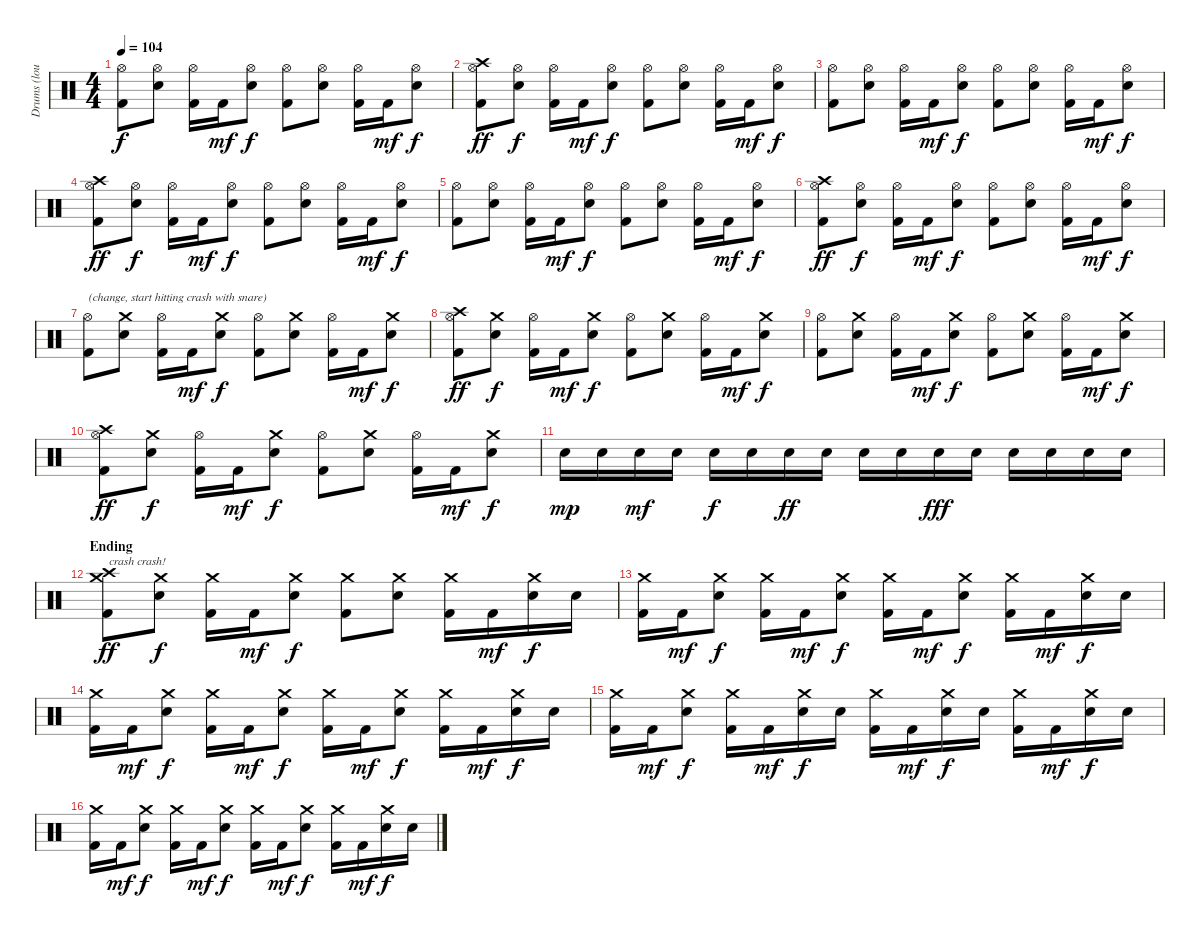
\track ("Drums (loud!)" "Drums (lou") {instrument percussion}
\staff {score}
\articulation defaults
\ts (4 4)
\tempo 104
\clef neutral
\ks c
("Hi-Hat (open)" "Kick (hit) 2").8{dy f} ("Hi-Hat (open)" "Snare (hit) 2").8 ("Hi-Hat (open)" "Kick (hit) 2").16 "Kick (hit) 2".16{dy mf} ("Hi-Hat (open)" "Snare (hit) 2").8{dy f} ("Hi-Hat (open)" "Kick (hit) 2").8 ("Hi-Hat (open)" "Snare (hit) 2").8 ("Hi-Hat (open)" "Kick (hit) 2").16 "Kick (hit) 2".16{dy mf} ("Hi-Hat (open)" "Snare (hit) 2").8{dy f} |
("Hi-Hat (open)" "Crash high (hit)" "Kick (hit) 2").8{dy ff} ("Hi-Hat (open)" "Snare (hit) 2").8{dy f} ("Hi-Hat (open)" "Kick (hit) 2").16 "Kick (hit) 2".16{dy mf} ("Hi-Hat (open)" "Snare (hit) 2").8{dy f} ("Hi-Hat (open)" "Kick (hit) 2").8 ("Hi-Hat (open)" "Snare (hit) 2").8 ("Hi-Hat (open)" "Kick (hit) 2").16 "Kick (hit) 2".16{dy mf} ("Hi-Hat (open)" "Snare (hit) 2").8{dy f} |
("Hi-Hat (open)" "Kick (hit) 2").8 ("Hi-Hat (open)" "Snare (hit) 2").8 ("Hi-Hat (open)" "Kick (hit) 2").16 "Kick (hit) 2".16{dy mf} ("Hi-Hat (open)" "Snare (hit) 2").8{dy f} ("Hi-Hat (open)" "Kick (hit) 2").8 ("Hi-Hat (open)" "Snare (hit) 2").8 ("Hi-Hat (open)" "Kick (hit) 2").16 "Kick (hit) 2".16{dy mf} ("Hi-Hat (open)" "Snare (hit) 2").8{dy f} |
("Hi-Hat (open)" "Crash high (hit)" "Kick (hit) 2").8{dy ff} ("Hi-Hat (open)" "Snare (hit) 2").8{dy f} ("Hi-Hat (open)" "Kick (hit) 2").16 "Kick (hit) 2".16{dy mf} ("Hi-Hat (open)" "Snare (hit) 2").8{dy f} ("Hi-Hat (open)" "Kick (hit) 2").8 ("Hi-Hat (open)" "Snare (hit) 2").8 ("Hi-Hat (open)" "Kick (hit) 2").16 "Kick (hit) 2".16{dy mf} ("Hi-Hat (open)" "Snare (hit) 2").8{dy f} |
("Hi-Hat (open)" "Kick (hit) 2").8 ("Hi-Hat (open)" "Snare (hit) 2").8 ("Hi-Hat (open)" "Kick (hit) 2").16 "Kick (hit) 2".16{dy mf} ("Hi-Hat (open)" "Snare (hit) 2").8{dy f} ("Hi-Hat (open)" "Kick (hit) 2").8 ("Hi-Hat (open)" "Snare (hit) 2").8 ("Hi-Hat (open)" "Kick (hit) 2").16 "Kick (hit) 2".16{dy mf} ("Hi-Hat (open)" "Snare (hit) 2").8{dy f} |
("Hi-Hat (open)" "Crash high (hit)" "Kick (hit) 2").8{dy ff} ("Hi-Hat (open)" "Snare (hit) 2").8{dy f} ("Hi-Hat (open)" "Kick (hit) 2").16 "Kick (hit) 2".16{dy mf} ("Hi-Hat (open)" "Snare (hit) 2").8{dy f} ("Hi-Hat (open)" "Kick (hit) 2").8 ("Hi-Hat (open)" "Snare (hit) 2").8 ("Hi-Hat (open)" "Kick (hit) 2").16 "Kick (hit) 2".16{dy mf} ("Hi-Hat (open)" "Snare (hit) 2").8{dy f} |
("Hi-Hat (open)" "Kick (hit) 2").8{txt "(change, start hitting crash with snare)"} ("Crash medium (hit)" "Snare (hit) 2").8 ("Hi-Hat (open)" "Kick (hit) 2").16 "Kick (hit) 2".16{dy mf} ("Crash medium (hit)" "Snare (hit) 2").8{dy f} ("Hi-Hat (open)" "Kick (hit) 2").8 ("Crash medium (hit)" "Snare (hit) 2").8 ("Hi-Hat (open)" "Kick (hit) 2").16 "Kick (hit) 2".16{dy mf} ("Crash medium (hit)" "Snare (hit) 2").8{dy f} |
("Hi-Hat (open)" "Crash high (hit)" "Kick (hit) 2").8{dy ff} ("Crash medium (hit)" "Snare (hit) 2").8{dy f} ("Hi-Hat (open)" "Kick (hit) 2").16 "Kick (hit) 2".16{dy mf} ("Crash medium (hit)" "Snare (hit) 2").8{dy f} ("Hi-Hat (open)" "Kick (hit) 2").8 ("Crash medium (hit)" "Snare (hit) 2").8 ("Hi-Hat (open)" "Kick (hit) 2").16 "Kick (hit) 2".16{dy mf} ("Crash medium (hit)" "Snare (hit) 2").8{dy f} |
("Hi-Hat (open)" "Kick (hit) 2").8 ("Crash medium (hit)" "Snare (hit) 2").8 ("Hi-Hat (open)" "Kick (hit) 2").16 "Kick (hit) 2".16{dy mf} ("Crash medium (hit)" "Snare (hit) 2").8{dy f} ("Hi-Hat (open)" "Kick (hit) 2").8 ("Crash medium (hit)" "Snare (hit) 2").8 ("Hi-Hat (open)" "Kick (hit) 2").16 "Kick (hit) 2".16{dy mf} ("Crash medium (hit)" "Snare (hit) 2").8{dy f} |
("Hi-Hat (open)" "Crash high (hit)" "Kick (hit) 2").8{dy ff} ("Crash medium (hit)" "Snare (hit) 2").8{dy f} ("Hi-Hat (open)" "Kick (hit) 2").16 "Kick (hit) 2".16{dy mf} ("Crash medium (hit)" "Snare (hit) 2").8{dy f} ("Hi-Hat (open)" "Kick (hit) 2").8 ("Crash medium (hit)" "Snare (hit) 2").8 ("Hi-Hat (open)" "Kick (hit) 2").16 "Kick (hit) 2".16{dy mf} ("Crash medium (hit)" "Snare (hit) 2").8{dy f} |
"Snare (hit) 2".16{dy mp} "Snare (hit) 2".16 "Snare (hit) 2".16{dy mf} "Snare (hit) 2".16 "Snare (hit) 2".16{dy f} "Snare (hit) 2".16 "Snare (hit) 2".16{dy ff} "Snare (hit) 2".16 "Snare (hit) 2".16 "Snare (hit) 2".16 "Snare (hit) 2".16{dy fff} "Snare (hit) 2".16 "Snare (hit) 2".16 "Snare (hit) 2".16 "Snare (hit) 2".16 "Snare (hit) 2".16 |
\section ("" "Ending")
("Crash medium (hit)" "Crash high (hit)" "Kick (hit) 2").8{txt "crash crash!" dy ff} ("Crash medium (hit)" "Snare (hit) 2").8{dy f} ("Crash medium (hit)" "Kick (hit) 2").16 "Kick (hit) 2".16{dy mf} ("Crash medium (hit)" "Snare (hit) 2").8{dy f} ("Crash medium (hit)" "Kick (hit) 2").8 ("Crash medium (hit)" "Snare (hit) 2").8 ("Crash medium (hit)" "Kick (hit) 2").16 "Kick (hit) 2".16{dy mf} ("Crash medium (hit)" "Snare (hit) 2").16{dy f} "Snare (hit) 2".16 |
("Crash medium (hit)" "Kick (hit) 2").16 "Kick (hit) 2".16{dy mf} ("Crash medium (hit)" "Snare (hit) 2").8{dy f} ("Crash medium (hit)" "Kick (hit) 2").16 "Kick (hit) 2".16{dy mf} ("Crash medium (hit)" "Snare (hit) 2").8{dy f} ("Crash medium (hit)" "Kick (hit) 2").16 "Kick (hit) 2".16{dy mf} ("Crash medium (hit)" "Snare (hit) 2").8{dy f} ("Crash medium (hit)" "Kick (hit) 2").16 "Kick (hit) 2".16{dy mf} ("Crash medium (hit)" "Snare (hit) 2").16{dy f} "Snare (hit) 2".16 |
("Crash medium (hit)" "Kick (hit) 2").16 "Kick (hit) 2".16{dy mf} ("Crash medium (hit)" "Snare (hit) 2").8{dy f} ("Crash medium (hit)" "Kick (hit) 2").16 "Kick (hit) 2".16{dy mf} ("Crash medium (hit)" "Snare (hit) 2").8{dy f} ("Crash medium (hit)" "Kick (hit) 2").16 "Kick (hit) 2".16{dy mf} ("Crash medium (hit)" "Snare (hit) 2").8{dy f} ("Crash medium (hit)" "Kick (hit) 2").16 "Kick (hit) 2".16{dy mf} ("Crash medium (hit)" "Snare (hit) 2").16{dy f} "Snare (hit) 2".16 |
("Crash medium (hit)" "Kick (hit) 2").16 "Kick (hit) 2".16{dy mf} ("Crash medium (hit)" "Snare (hit) 2").8{dy f} ("Crash medium (hit)" "Kick (hit) 2").16 "Kick (hit) 2".16{dy mf} ("Crash medium (hit)" "Snare (hit) 2").16{dy f} "Snare (hit) 2".16 ("Crash medium (hit)" "Kick (hit) 2").16 "Kick (hit) 2".16{dy mf} ("Crash medium (hit)" "Snare (hit) 2").16{dy f} "Snare (hit) 2".16 ("Crash medium (hit)" "Kick (hit) 2").16 "Kick (hit) 2".16{dy mf} ("Crash medium (hit)" "Snare (hit) 2").16{dy f} "Snare (hit) 2".16 |
("Crash medium (hit)" "Kick (hit) 2").16 "Kick (hit) 2".16{dy mf} ("Crash medium (hit)" "Snare (hit) 2").8{dy f} ("Crash medium (hit)" "Kick (hit) 2").16 "Kick (hit) 2".16{dy mf} ("Crash medium (hit)" "Snare (hit) 2").8{dy f} ("Crash medium (hit)" "Kick (hit) 2").16 "Kick (hit) 2".16{dy mf} ("Crash medium (hit)" "Snare (hit) 2").8{dy f} ("Crash medium (hit)" "Kick (hit) 2").16 "Kick (hit) 2".16{dy mf} ("Crash medium (hit)" "Snare (hit) 2").16{dy f} "Snare (hit) 2".16
